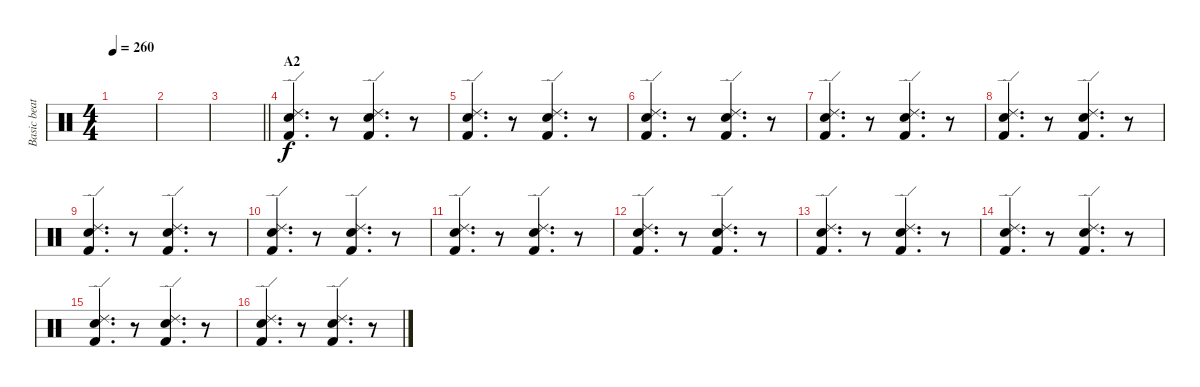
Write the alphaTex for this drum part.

\track ("Basic beat" "Basic beat") {instrument percussion}
\staff {score}
\articulation defaults
\ts (4 4)
\tempo 260
\clef neutral
\ks c
|
|
\barLineRight lightlight
|
\section ("" "A2")
("Ride (edge) 2" "Electric Snare (hit)" "Kick (hit) 2").4{d} r.8 ("Ride (edge) 2" "Electric Snare (hit)" "Kick (hit) 2").4{d} r.8 |
("Ride (edge) 2" "Electric Snare (hit)" "Kick (hit) 2").4{d} r.8 ("Ride (edge) 2" "Electric Snare (hit)" "Kick (hit) 2").4{d} r.8 |
("Ride (edge) 2" "Electric Snare (hit)" "Kick (hit) 2").4{d} r.8 ("Ride (edge) 2" "Electric Snare (hit)" "Kick (hit) 2").4{d} r.8 |
("Ride (edge) 2" "Electric Snare (hit)" "Kick (hit) 2").4{d} r.8 ("Ride (edge) 2" "Electric Snare (hit)" "Kick (hit) 2").4{d} r.8 |
("Ride (edge) 2" "Electric Snare (hit)" "Kick (hit) 2").4{d} r.8 ("Ride (edge) 2" "Electric Snare (hit)" "Kick (hit) 2").4{d} r.8 |
("Ride (edge) 2" "Electric Snare (hit)" "Kick (hit) 2").4{d} r.8 ("Ride (edge) 2" "Electric Snare (hit)" "Kick (hit) 2").4{d} r.8 |
("Ride (edge) 2" "Electric Snare (hit)" "Kick (hit) 2").4{d} r.8 ("Ride (edge) 2" "Electric Snare (hit)" "Kick (hit) 2").4{d} r.8 |
("Ride (edge) 2" "Electric Snare (hit)" "Kick (hit) 2").4{d} r.8 ("Ride (edge) 2" "Electric Snare (hit)" "Kick (hit) 2").4{d} r.8 |
("Ride (edge) 2" "Electric Snare (hit)" "Kick (hit) 2").4{d} r.8 ("Ride (edge) 2" "Electric Snare (hit)" "Kick (hit) 2").4{d} r.8 |
("Ride (edge) 2" "Electric Snare (hit)" "Kick (hit) 2").4{d} r.8 ("Ride (edge) 2" "Electric Snare (hit)" "Kick (hit) 2").4{d} r.8 |
("Ride (edge) 2" "Electric Snare (hit)" "Kick (hit) 2").4{d} r.8 ("Ride (edge) 2" "Electric Snare (hit)" "Kick (hit) 2").4{d} r.8 |
("Ride (edge) 2" "Electric Snare (hit)" "Kick (hit) 2").4{d} r.8 ("Ride (edge) 2" "Electric Snare (hit)" "Kick (hit) 2").4{d} r.8 |
("Ride (edge) 2" "Electric Snare (hit)" "Kick (hit) 2").4{d} r.8 ("Ride (edge) 2" "Electric Snare (hit)" "Kick (hit) 2").4{d} r.8
